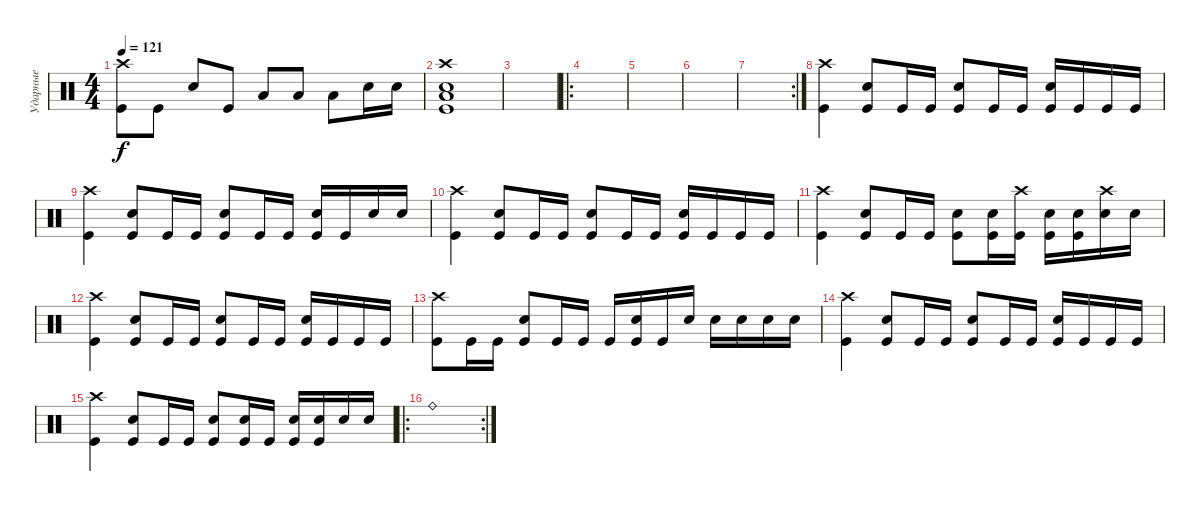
\track ("Ударные" "Ударные") {instrument percussion}
\staff {score}
\articulation defaults
\ts (4 4)
\tempo 121
\clef neutral
\ks c
("Crash high (hit)" "Kick (hit)").8{dy f} "Kick (hit)".8 "Electric Snare (hit)".8 "Kick (hit)".8 "Low Tom (hit)".8 "Low Tom (hit)".8 "Low Tom (hit)".8 "Electric Snare (hit)".16 "Electric Snare (hit)".16 |
("Crash high (hit)" "Low Tom (hit)" "Electric Snare (hit)" "Kick (hit)").1 |
|
\ro
|
|
|
\rc 2
|
("Crash high (hit)" "Kick (hit)").4 ("Electric Snare (hit)" "Kick (hit)").8 "Kick (hit)".16 "Kick (hit)".16 ("Electric Snare (hit)" "Kick (hit)").8 "Kick (hit)".16 "Kick (hit)".16 ("Electric Snare (hit)" "Kick (hit)").16 "Kick (hit)".16 "Kick (hit)".16 "Kick (hit)".16 |
("Crash high (hit)" "Kick (hit)").4 ("Electric Snare (hit)" "Kick (hit)").8 "Kick (hit)".16 "Kick (hit)".16 ("Electric Snare (hit)" "Kick (hit)").8 "Kick (hit)".16 "Kick (hit)".16 ("Electric Snare (hit)" "Kick (hit)").16 "Kick (hit)".16 "Electric Snare (hit)".16 "Electric Snare (hit)".16 |
("Crash high (hit)" "Kick (hit)").4 ("Electric Snare (hit)" "Kick (hit)").8 "Kick (hit)".16 "Kick (hit)".16 ("Electric Snare (hit)" "Kick (hit)").8 "Kick (hit)".16 "Kick (hit)".16 ("Electric Snare (hit)" "Kick (hit)").16 "Kick (hit)".16 "Kick (hit)".16 "Kick (hit)".16 |
("Crash high (hit)" "Kick (hit)").4 ("Electric Snare (hit)" "Kick (hit)").8 "Kick (hit)".16 "Kick (hit)".16 ("Electric Snare (hit)" "Kick (hit)").8 ("Electric Snare (hit)" "Kick (hit)").16 ("Crash high (hit)" "Kick (hit)").16 ("Electric Snare (hit)" "Kick (hit)").16 ("Electric Snare (hit)" "Kick (hit)").16 ("Crash high (hit)" "Electric Snare (hit)").16 "Electric Snare (hit)".16 |
("Crash high (hit)" "Kick (hit)").4 ("Electric Snare (hit)" "Kick (hit)").8 "Kick (hit)".16 "Kick (hit)".16 ("Electric Snare (hit)" "Kick (hit)").8 "Kick (hit)".16 "Kick (hit)".16 ("Electric Snare (hit)" "Kick (hit)").16 "Kick (hit)".16 "Kick (hit)".16 "Kick (hit)".16 |
("Crash high (hit)" "Kick (hit)").8 "Kick (hit)".16 "Kick (hit)".16 ("Electric Snare (hit)" "Kick (hit)").8 "Kick (hit)".16 "Kick (hit)".16 "Kick (hit)".16 ("Electric Snare (hit)" "Kick (hit)").16 "Kick (hit)".16 "Electric Snare (hit)".16 "Electric Snare (hit)".16 "Electric Snare (hit)".16 "Electric Snare (hit)".16 "Electric Snare (hit)".16 |
("Crash high (hit)" "Kick (hit)").4 ("Electric Snare (hit)" "Kick (hit)").8 "Kick (hit)".16 "Kick (hit)".16 ("Electric Snare (hit)" "Kick (hit)").8 "Kick (hit)".16 "Kick (hit)".16 ("Electric Snare (hit)" "Kick (hit)").16 "Kick (hit)".16 "Kick (hit)".16 "Kick (hit)".16 |
("Crash high (hit)" "Kick (hit)").4 ("Electric Snare (hit)" "Kick (hit)").8 "Kick (hit)".16 "Kick (hit)".16 ("Electric Snare (hit)" "Kick (hit)").8 ("Electric Snare (hit)" "Kick (hit)").16 "Kick (hit)".16 ("Electric Snare (hit)" "Kick (hit)").16 ("Electric Snare (hit)" "Kick (hit)").16 "Electric Snare (hit)".16 "Electric Snare (hit)".16 |
\ro
\rc 2 "Ride (bell)".1
